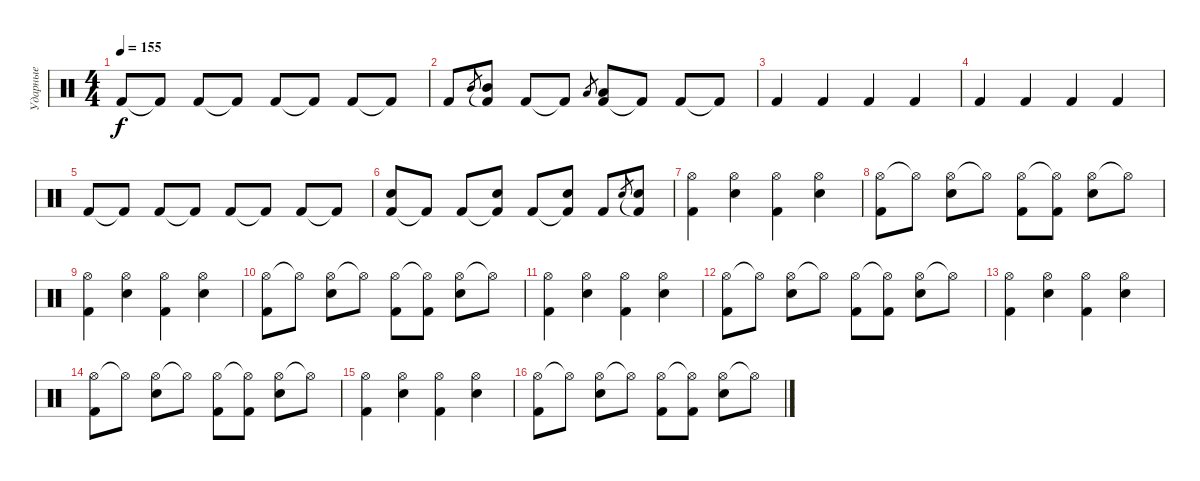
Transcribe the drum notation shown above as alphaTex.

\track ("Ударные" "Ударные") {solo instrument percussion}
\staff {score}
\articulation defaults
\ts (4 4)
\tempo 155
\clef neutral
\ks c "Kick (hit) 2".8{dy f} "Kick (hit) 2"{t}.8 "Kick (hit) 2".8 "Kick (hit) 2"{t}.8 "Kick (hit) 2".8 "Kick (hit) 2"{t}.8 "Kick (hit) 2".8 "Kick (hit) 2"{t}.8
|
"Kick (hit) 2".8 "Mid Tom (hit)".8{gr} ("Kick (hit) 2"{t} "Mid Tom (hit)").8 "Kick (hit) 2".8 "Kick (hit) 2"{t}.8 "Low Tom (hit)".8{gr} ("Kick (hit) 2" "Low Tom (hit)").8 "Kick (hit) 2"{t}.8 "Kick (hit) 2".8 "Kick (hit) 2"{t}.8 |
"Kick (hit) 2".4 "Kick (hit) 2".4 "Kick (hit) 2".4 "Kick (hit) 2".4 |
"Kick (hit) 2".4 "Kick (hit) 2".4 "Kick (hit) 2".4 "Kick (hit) 2".4 |
"Kick (hit) 2".8 "Kick (hit) 2"{t}.8 "Kick (hit) 2".8 "Kick (hit) 2"{t}.8 "Kick (hit) 2".8 "Kick (hit) 2"{t}.8 "Kick (hit) 2".8 "Kick (hit) 2"{t}.8 |
("Kick (hit) 2" "Electric Snare (hit)").8 "Kick (hit) 2"{t}.8 "Kick (hit) 2".8 ("Kick (hit) 2"{t} "Electric Snare (hit)").8 "Kick (hit) 2".8 ("Kick (hit) 2"{t} "Electric Snare (hit)").8 "Kick (hit) 2".8 "Electric Snare (hit)".8{gr} ("Kick (hit) 2"{t} "Electric Snare (hit)").8 |
("Hi-Hat (open)" "Kick (hit) 2").4 ("Hi-Hat (open)" "Electric Snare (hit)").4 ("Hi-Hat (open)" "Kick (hit) 2").4 ("Hi-Hat (open)" "Electric Snare (hit)").4 |
("Hi-Hat (open)" "Kick (hit) 2").8 "Hi-Hat (open)"{t}.8 ("Hi-Hat (open)" "Electric Snare (hit)").8 "Hi-Hat (open)"{t}.8 ("Hi-Hat (open)" "Kick (hit) 2").8 ("Hi-Hat (open)"{t} "Kick (hit) 2").8 ("Hi-Hat (open)" "Electric Snare (hit)").8 "Hi-Hat (open)"{t}.8 |
("Hi-Hat (open)" "Kick (hit) 2").4 ("Hi-Hat (open)" "Electric Snare (hit)").4 ("Hi-Hat (open)" "Kick (hit) 2").4 ("Hi-Hat (open)" "Electric Snare (hit)").4 |
("Hi-Hat (open)" "Kick (hit) 2").8 "Hi-Hat (open)"{t}.8 ("Hi-Hat (open)" "Electric Snare (hit)").8 "Hi-Hat (open)"{t}.8 ("Hi-Hat (open)" "Kick (hit) 2").8 ("Hi-Hat (open)"{t} "Kick (hit) 2").8 ("Hi-Hat (open)" "Electric Snare (hit)").8 "Hi-Hat (open)"{t}.8 |
("Hi-Hat (open)" "Kick (hit) 2").4 ("Hi-Hat (open)" "Electric Snare (hit)").4 ("Hi-Hat (open)" "Kick (hit) 2").4 ("Hi-Hat (open)" "Electric Snare (hit)").4 |
("Hi-Hat (open)" "Kick (hit) 2").8 "Hi-Hat (open)"{t}.8 ("Hi-Hat (open)" "Electric Snare (hit)").8 "Hi-Hat (open)"{t}.8 ("Hi-Hat (open)" "Kick (hit) 2").8 ("Hi-Hat (open)"{t} "Kick (hit) 2").8 ("Hi-Hat (open)" "Electric Snare (hit)").8 "Hi-Hat (open)"{t}.8 |
("Hi-Hat (open)" "Kick (hit) 2").4 ("Hi-Hat (open)" "Electric Snare (hit)").4 ("Hi-Hat (open)" "Kick (hit) 2").4 ("Hi-Hat (open)" "Electric Snare (hit)").4 |
("Hi-Hat (open)" "Kick (hit) 2").8 "Hi-Hat (open)"{t}.8 ("Hi-Hat (open)" "Electric Snare (hit)").8 "Hi-Hat (open)"{t}.8 ("Hi-Hat (open)" "Kick (hit) 2").8 ("Hi-Hat (open)"{t} "Kick (hit) 2").8 ("Hi-Hat (open)" "Electric Snare (hit)").8 "Hi-Hat (open)"{t}.8 |
("Hi-Hat (open)" "Kick (hit) 2").4 ("Hi-Hat (open)" "Electric Snare (hit)").4 ("Hi-Hat (open)" "Kick (hit) 2").4 ("Hi-Hat (open)" "Electric Snare (hit)").4 |
("Hi-Hat (open)" "Kick (hit) 2").8 "Hi-Hat (open)"{t}.8 ("Hi-Hat (open)" "Electric Snare (hit)").8 "Hi-Hat (open)"{t}.8 ("Hi-Hat (open)" "Kick (hit) 2").8 ("Hi-Hat (open)"{t} "Kick (hit) 2").8 ("Hi-Hat (open)" "Electric Snare (hit)").8 "Hi-Hat (open)"{t}.8
